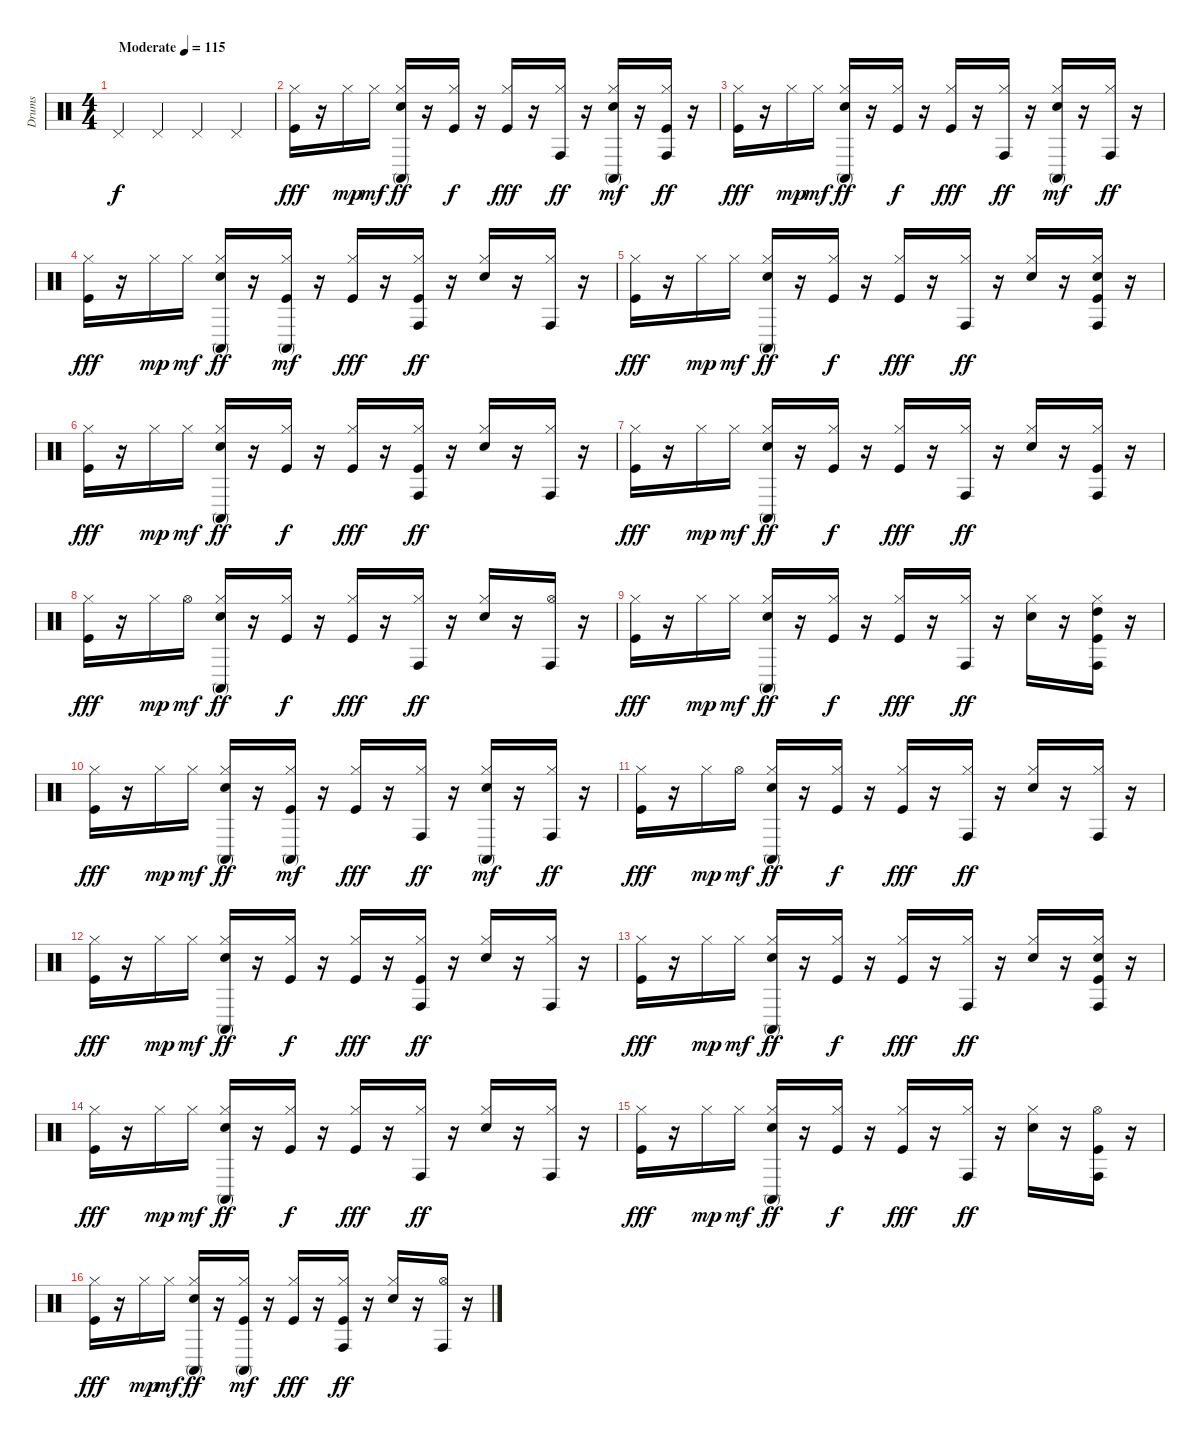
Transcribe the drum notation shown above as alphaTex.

\track ("Drums" "Drums") {instrument percussion}
\staff {score}
\articulation defaults
\ts (4 4)
\tempo (115 "Moderate")
\clef neutral
\ks c "Pedal Hi-Hat (hit)".4{dy f} "Pedal Hi-Hat (hit)".4 "Pedal Hi-Hat (hit)".4 "Pedal Hi-Hat (hit)".4
|
("Kick (hit)" "Hi-Hat (closed)").16{dy fff} r.16 "Hi-Hat (closed)".16{dy mp} "Hi-Hat (closed)".16{dy mf} ("Snare (hit) 2" "Hi-Hat (closed)" "Conga high (mute)").16{dy ff} r.16 ("Kick (hit)" "Hi-Hat (closed)").16{dy f} r.16 ("Kick (hit)" "Hi-Hat (closed)").16{dy fff} r.16 ("Hi-Hat (closed)" "Conga high (hit)").16{dy ff} r.16 ("Snare (hit) 2" "Hi-Hat (closed)" "Conga high (mute)").16{dy mf} r.16 ("Kick (hit)" "Hi-Hat (closed)" "Conga high (hit)").16{dy ff} r.16 |
("Kick (hit)" "Hi-Hat (closed)").16{dy fff} r.16 "Hi-Hat (closed)".16{dy mp} "Hi-Hat (closed)".16{dy mf} ("Snare (hit) 2" "Hi-Hat (closed)" "Conga high (mute)").16{dy ff} r.16 ("Kick (hit)" "Hi-Hat (closed)").16{dy f} r.16 ("Kick (hit)" "Hi-Hat (closed)").16{dy fff} r.16 ("Hi-Hat (closed)" "Conga high (hit)").16{dy ff} r.16 ("Snare (hit) 2" "Hi-Hat (closed)" "Conga high (mute)").16{dy mf} r.16 ("Hi-Hat (closed)" "Conga high (hit)").16{dy ff} r.16 |
("Kick (hit)" "Hi-Hat (closed)").16{dy fff} r.16 "Hi-Hat (closed)".16{dy mp} "Hi-Hat (closed)".16{dy mf} ("Snare (hit) 2" "Hi-Hat (closed)" "Conga high (mute)").16{dy ff} r.16 ("Kick (hit)" "Hi-Hat (closed)" "Conga high (mute)").16{dy mf} r.16 ("Kick (hit)" "Hi-Hat (closed)").16{dy fff} r.16 ("Kick (hit)" "Hi-Hat (closed)" "Conga high (hit)").16{dy ff} r.16 ("Snare (hit) 2" "Hi-Hat (closed)").16 r.16 ("Hi-Hat (closed)" "Conga high (hit)").16 r.16 |
("Kick (hit)" "Hi-Hat (closed)").16{dy fff} r.16 "Hi-Hat (closed)".16{dy mp} "Hi-Hat (closed)".16{dy mf} ("Snare (hit) 2" "Hi-Hat (closed)" "Conga high (mute)").16{dy ff} r.16 ("Kick (hit)" "Hi-Hat (closed)").16{dy f} r.16 ("Kick (hit)" "Hi-Hat (closed)").16{dy fff} r.16 ("Hi-Hat (closed)" "Conga high (hit)").16{dy ff} r.16 ("Snare (hit) 2" "Hi-Hat (closed)").16 r.16 ("Kick (hit)" "Snare (hit) 2" "Hi-Hat (closed)" "Conga high (hit)").16 r.16 |
("Kick (hit)" "Hi-Hat (closed)").16{dy fff} r.16 "Hi-Hat (closed)".16{dy mp} "Hi-Hat (closed)".16{dy mf} ("Snare (hit) 2" "Hi-Hat (closed)" "Conga high (mute)").16{dy ff} r.16 ("Kick (hit)" "Hi-Hat (closed)").16{dy f} r.16 ("Kick (hit)" "Hi-Hat (closed)").16{dy fff} r.16 ("Kick (hit)" "Hi-Hat (closed)" "Conga high (hit)").16{dy ff} r.16 ("Snare (hit) 2" "Hi-Hat (closed)").16 r.16 ("Hi-Hat (closed)" "Conga high (hit)").16 r.16 |
("Kick (hit)" "Hi-Hat (closed)").16{dy fff} r.16 "Hi-Hat (closed)".16{dy mp} "Hi-Hat (closed)".16{dy mf} ("Snare (hit) 2" "Hi-Hat (closed)" "Conga high (mute)").16{dy ff} r.16 ("Kick (hit)" "Hi-Hat (closed)").16{dy f} r.16 ("Kick (hit)" "Hi-Hat (closed)").16{dy fff} r.16 ("Hi-Hat (closed)" "Conga high (hit)").16{dy ff} r.16 ("Snare (hit) 2" "Hi-Hat (closed)").16 r.16 ("Kick (hit)" "Hi-Hat (closed)" "Conga high (hit)").16 r.16 |
("Kick (hit)" "Hi-Hat (closed)").16{dy fff} r.16 "Hi-Hat (closed)".16{dy mp} "Hi-Hat (open)".16{dy mf} ("Snare (hit) 2" "Hi-Hat (closed)" "Conga high (mute)").16{dy ff} r.16 ("Kick (hit)" "Hi-Hat (closed)").16{dy f} r.16 ("Kick (hit)" "Hi-Hat (closed)").16{dy fff} r.16 ("Hi-Hat (closed)" "Conga high (hit)").16{dy ff} r.16 ("Snare (hit) 2" "Hi-Hat (closed)").16 r.16 ("Hi-Hat (open)" "Conga high (hit)").16 r.16 |
("Kick (hit)" "Hi-Hat (closed)").16{dy fff} r.16 "Hi-Hat (closed)".16{dy mp} "Hi-Hat (closed)".16{dy mf} ("Snare (hit) 2" "Hi-Hat (closed)" "Conga high (mute)").16{dy ff} r.16 ("Kick (hit)" "Hi-Hat (closed)").16{dy f} r.16 ("Kick (hit)" "Hi-Hat (closed)").16{dy fff} r.16 ("Hi-Hat (closed)" "Conga high (hit)").16{dy ff} r.16 ("Snare (hit) 2" "Hi-Hat (closed)").16 r.16 ("Kick (hit)" "Hi-Hat (closed)" "High Tom (hit)" "Conga high (hit)").16 r.16 |
("Kick (hit)" "Hi-Hat (closed)").16{dy fff} r.16 "Hi-Hat (closed)".16{dy mp} "Hi-Hat (closed)".16{dy mf} ("Snare (hit) 2" "Hi-Hat (closed)" "Conga high (mute)").16{dy ff} r.16 ("Kick (hit)" "Hi-Hat (closed)" "Conga high (mute)").16{dy mf} r.16 ("Kick (hit)" "Hi-Hat (closed)").16{dy fff} r.16 ("Hi-Hat (closed)" "Conga high (hit)").16{dy ff} r.16 ("Snare (hit) 2" "Hi-Hat (closed)" "Conga high (mute)").16{dy mf} r.16 ("Hi-Hat (closed)" "Conga high (hit)").16{dy ff} r.16 |
("Kick (hit)" "Hi-Hat (closed)").16{dy fff} r.16 "Hi-Hat (closed)".16{dy mp} "Hi-Hat (open)".16{dy mf} ("Snare (hit) 2" "Hi-Hat (closed)" "Conga high (mute)").16{dy ff} r.16 ("Kick (hit)" "Hi-Hat (closed)").16{dy f} r.16 ("Kick (hit)" "Hi-Hat (closed)").16{dy fff} r.16 ("Hi-Hat (closed)" "Conga high (hit)").16{dy ff} r.16 ("Snare (hit) 2" "Hi-Hat (closed)").16 r.16 ("Hi-Hat (closed)" "Conga high (hit)").16 r.16 |
("Kick (hit)" "Hi-Hat (closed)").16{dy fff} r.16 "Hi-Hat (closed)".16{dy mp} "Hi-Hat (closed)".16{dy mf} ("Snare (hit) 2" "Hi-Hat (closed)" "Conga high (mute)").16{dy ff} r.16 ("Kick (hit)" "Hi-Hat (closed)").16{dy f} r.16 ("Kick (hit)" "Hi-Hat (closed)").16{dy fff} r.16 ("Kick (hit)" "Hi-Hat (closed)" "Conga high (hit)").16{dy ff} r.16 ("Snare (hit) 2" "Hi-Hat (closed)").16 r.16 ("Hi-Hat (closed)" "Conga high (hit)").16 r.16 |
("Kick (hit)" "Hi-Hat (closed)").16{dy fff} r.16 "Hi-Hat (closed)".16{dy mp} "Hi-Hat (closed)".16{dy mf} ("Snare (hit) 2" "Hi-Hat (closed)" "Conga high (mute)").16{dy ff} r.16 ("Kick (hit)" "Hi-Hat (closed)").16{dy f} r.16 ("Kick (hit)" "Hi-Hat (closed)").16{dy fff} r.16 ("Hi-Hat (closed)" "Conga high (hit)").16{dy ff} r.16 ("Snare (hit) 2" "Hi-Hat (closed)").16 r.16 ("Kick (hit)" "Snare (hit) 2" "Hi-Hat (closed)" "Conga high (hit)").16 r.16 |
("Kick (hit)" "Hi-Hat (closed)").16{dy fff} r.16 "Hi-Hat (closed)".16{dy mp} "Hi-Hat (closed)".16{dy mf} ("Snare (hit) 2" "Hi-Hat (closed)" "Conga high (mute)").16{dy ff} r.16 ("Kick (hit)" "Hi-Hat (closed)").16{dy f} r.16 ("Kick (hit)" "Hi-Hat (closed)").16{dy fff} r.16 ("Hi-Hat (closed)" "Conga high (hit)").16{dy ff} r.16 ("Snare (hit) 2" "Hi-Hat (closed)").16 r.16 ("Hi-Hat (closed)" "Conga high (hit)").16 r.16 |
("Kick (hit)" "Hi-Hat (closed)").16{dy fff} r.16 "Hi-Hat (closed)".16{dy mp} "Hi-Hat (closed)".16{dy mf} ("Snare (hit) 2" "Hi-Hat (closed)" "Conga high (mute)").16{dy ff} r.16 ("Kick (hit)" "Hi-Hat (closed)").16{dy f} r.16 ("Kick (hit)" "Hi-Hat (closed)").16{dy fff} r.16 ("Hi-Hat (closed)" "Conga high (hit)").16{dy ff} r.16 ("Snare (hit) 2" "Hi-Hat (closed)").16 r.16 ("Kick (hit)" "Hi-Hat (open)" "Conga high (hit)").16 r.16 |
("Kick (hit)" "Hi-Hat (closed)").16{dy fff} r.16 "Hi-Hat (closed)".16{dy mp} "Hi-Hat (closed)".16{dy mf} ("Snare (hit) 2" "Hi-Hat (closed)" "Conga high (mute)").16{dy ff} r.16 ("Kick (hit)" "Hi-Hat (closed)" "Conga high (mute)").16{dy mf} r.16 ("Kick (hit)" "Hi-Hat (closed)").16{dy fff} r.16 ("Kick (hit)" "Hi-Hat (closed)" "Conga high (hit)").16{dy ff} r.16 ("Snare (hit) 2" "Hi-Hat (closed)").16 r.16 ("Hi-Hat (open)" "Conga high (hit)").16 r.16
